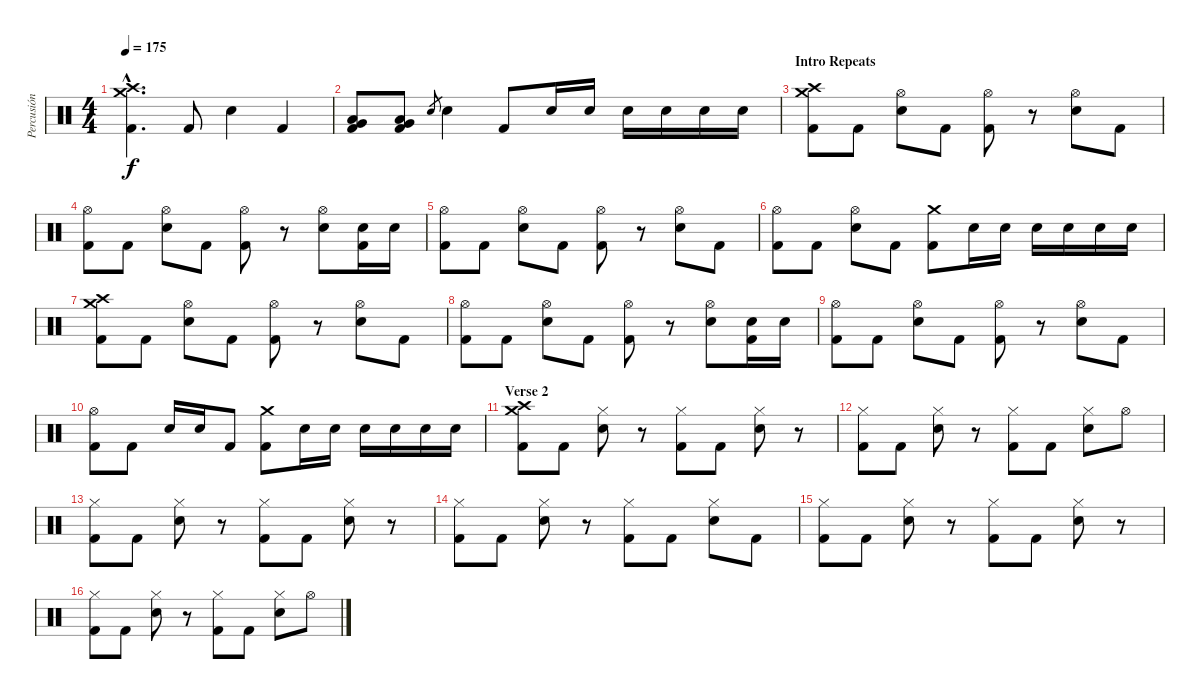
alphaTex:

\track ("Percusión" "Percusión") {instrument percussion}
\staff {score}
\articulation defaults
\ts (4 4)
\tempo 175
\clef neutral
\ks c
("Crash high (hit)"{hac} "Crash medium (hit)"{hac} "Kick (hit) 2"{hac}).4{d dy f} "Kick (hit) 2".8 "Electric Snare (hit)".4 "Kick (hit) 2".4 |
("Low Tom (hit)" "Very Low Tom (hit)" "Kick (hit) 2").8 ("Low Tom (hit)" "Very Low Tom (hit)" "Kick (hit) 2").8 "Electric Snare (hit)".8{gr} "Electric Snare (hit)".4 "Kick (hit) 2".8 "Electric Snare (hit)".16 "Electric Snare (hit)".16 "Electric Snare (hit)".16 "Electric Snare (hit)".16 "Electric Snare (hit)".16 "Electric Snare (hit)".16 |
\section ("" "Intro Repeats")
("Crash medium (hit)" "Crash high (hit)" "Kick (hit) 2").8 "Kick (hit) 2".8 ("Hi-Hat (open)" "Electric Snare (hit)").8 "Kick (hit) 2".8 ("Hi-Hat (open)" "Kick (hit) 2").8 r.8 ("Hi-Hat (open)" "Electric Snare (hit)").8 "Kick (hit) 2".8 |
("Hi-Hat (open)" "Kick (hit) 2").8 "Kick (hit) 2".8 ("Hi-Hat (open)" "Electric Snare (hit)").8 "Kick (hit) 2".8 ("Hi-Hat (open)" "Kick (hit) 2").8 r.8 ("Hi-Hat (open)" "Electric Snare (hit)").8 ("Electric Snare (hit)" "Kick (hit) 2").16 "Electric Snare (hit)".16 |
("Hi-Hat (open)" "Kick (hit) 2").8 "Kick (hit) 2".8 ("Hi-Hat (open)" "Electric Snare (hit)").8 "Kick (hit) 2".8 ("Hi-Hat (open)" "Kick (hit) 2").8 r.8 ("Hi-Hat (open)" "Electric Snare (hit)").8 "Kick (hit) 2".8 |
("Hi-Hat (open)" "Kick (hit) 2").8 "Kick (hit) 2".8 ("Hi-Hat (open)" "Electric Snare (hit)").8 "Kick (hit) 2".8 ("Crash medium (hit)" "Kick (hit) 2").8 "Electric Snare (hit)".16 "Electric Snare (hit)".16 "Electric Snare (hit)".16 "Electric Snare (hit)".16 "Electric Snare (hit)".16 "Electric Snare (hit)".16 |
("Crash medium (hit)" "Crash high (hit)" "Kick (hit) 2").8 "Kick (hit) 2".8 ("Hi-Hat (open)" "Electric Snare (hit)").8 "Kick (hit) 2".8 ("Hi-Hat (open)" "Kick (hit) 2").8 r.8 ("Hi-Hat (open)" "Electric Snare (hit)").8 "Kick (hit) 2".8 |
("Hi-Hat (open)" "Kick (hit) 2").8 "Kick (hit) 2".8 ("Hi-Hat (open)" "Electric Snare (hit)").8 "Kick (hit) 2".8 ("Hi-Hat (open)" "Kick (hit) 2").8 r.8 ("Hi-Hat (open)" "Electric Snare (hit)").8 ("Electric Snare (hit)" "Kick (hit) 2").16 "Electric Snare (hit)".16 |
("Hi-Hat (open)" "Kick (hit) 2").8 "Kick (hit) 2".8 ("Hi-Hat (open)" "Electric Snare (hit)").8 "Kick (hit) 2".8 ("Hi-Hat (open)" "Kick (hit) 2").8 r.8 ("Hi-Hat (open)" "Electric Snare (hit)").8 "Kick (hit) 2".8 |
("Hi-Hat (open)" "Kick (hit) 2").8 "Kick (hit) 2".8 "Electric Snare (hit)".16 "Electric Snare (hit)".16 "Kick (hit) 2".8 ("Crash medium (hit)" "Kick (hit) 2").8 "Electric Snare (hit)".16 "Electric Snare (hit)".16 "Electric Snare (hit)".16 "Electric Snare (hit)".16 "Electric Snare (hit)".16 "Electric Snare (hit)".16 |
\section ("" "Verse 2")
("Crash high (hit)" "Crash medium (hit)" "Kick (hit) 2").8 "Kick (hit) 2".8 ("Hi-Hat (closed)" "Electric Snare (hit)").8 r.8 ("Hi-Hat (closed)" "Kick (hit) 2").8 "Kick (hit) 2".8 ("Hi-Hat (closed)" "Electric Snare (hit)").8 r.8 |
("Hi-Hat (closed)" "Kick (hit) 2").8 "Kick (hit) 2".8 ("Hi-Hat (closed)" "Electric Snare (hit)").8 r.8 ("Hi-Hat (closed)" "Kick (hit) 2").8 "Kick (hit) 2".8 ("Hi-Hat (closed)" "Electric Snare (hit)").8 "Hi-Hat (open)".8 |
("Hi-Hat (closed)" "Kick (hit) 2").8 "Kick (hit) 2".8 ("Hi-Hat (closed)" "Electric Snare (hit)").8 r.8 ("Hi-Hat (closed)" "Kick (hit) 2").8 "Kick (hit) 2".8 ("Hi-Hat (closed)" "Electric Snare (hit)").8 r.8 |
("Hi-Hat (closed)" "Kick (hit) 2").8 "Kick (hit) 2".8 ("Hi-Hat (closed)" "Electric Snare (hit)").8 r.8 ("Hi-Hat (closed)" "Kick (hit) 2").8 "Kick (hit) 2".8 ("Hi-Hat (closed)" "Electric Snare (hit)").8 "Kick (hit) 2".8 |
("Hi-Hat (closed)" "Kick (hit) 2").8 "Kick (hit) 2".8 ("Hi-Hat (closed)" "Electric Snare (hit)").8 r.8 ("Hi-Hat (closed)" "Kick (hit) 2").8 "Kick (hit) 2".8 ("Hi-Hat (closed)" "Electric Snare (hit)").8 r.8 |
("Hi-Hat (closed)" "Kick (hit) 2").8 "Kick (hit) 2".8 ("Hi-Hat (closed)" "Electric Snare (hit)").8 r.8 ("Hi-Hat (closed)" "Kick (hit) 2").8 "Kick (hit) 2".8 ("Hi-Hat (closed)" "Electric Snare (hit)").8 "Hi-Hat (open)".8
